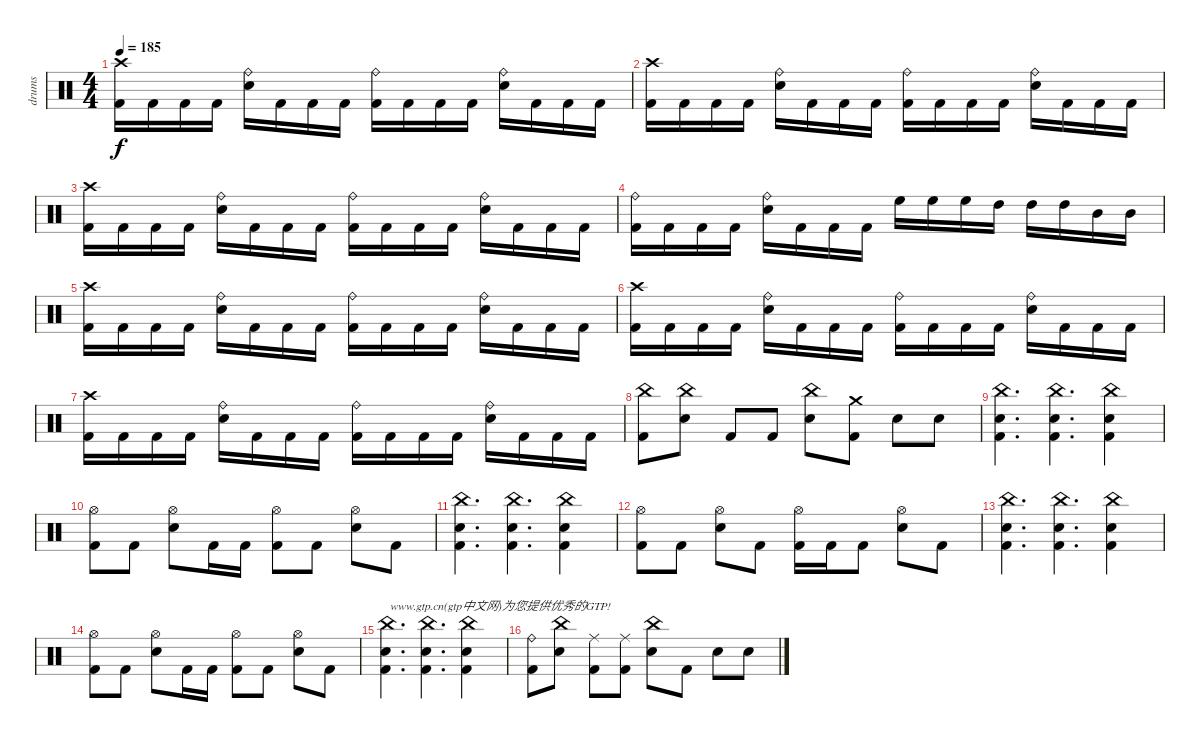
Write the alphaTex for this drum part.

\track ("drums" "drums") {instrument percussion}
\staff {score}
\articulation defaults
\ts (4 4)
\tempo 185
\clef neutral
\ks c
("Crash high (hit)" "Kick (hit) 2").16{dy f} "Kick (hit) 2".16 "Kick (hit) 2".16 "Kick (hit) 2".16 ("Ride (bell)" "Snare (hit) 2").16 "Kick (hit) 2".16 "Kick (hit) 2".16 "Kick (hit) 2".16 ("Ride (bell)" "Kick (hit) 2").16 "Kick (hit) 2".16 "Kick (hit) 2".16 "Kick (hit) 2".16 ("Ride (bell)" "Snare (hit) 2").16 "Kick (hit) 2".16 "Kick (hit) 2".16 "Kick (hit) 2".16 |
("Crash high (hit)" "Kick (hit) 2").16 "Kick (hit) 2".16 "Kick (hit) 2".16 "Kick (hit) 2".16 ("Ride (bell)" "Snare (hit) 2").16 "Kick (hit) 2".16 "Kick (hit) 2".16 "Kick (hit) 2".16 ("Ride (bell)" "Kick (hit) 2").16 "Kick (hit) 2".16 "Kick (hit) 2".16 "Kick (hit) 2".16 ("Ride (bell)" "Snare (hit) 2").16 "Kick (hit) 2".16 "Kick (hit) 2".16 "Kick (hit) 2".16 |
("Crash high (hit)" "Kick (hit) 2").16 "Kick (hit) 2".16 "Kick (hit) 2".16 "Kick (hit) 2".16 ("Ride (bell)" "Snare (hit) 2").16 "Kick (hit) 2".16 "Kick (hit) 2".16 "Kick (hit) 2".16 ("Ride (bell)" "Kick (hit) 2").16 "Kick (hit) 2".16 "Kick (hit) 2".16 "Kick (hit) 2".16 ("Ride (bell)" "Snare (hit) 2").16 "Kick (hit) 2".16 "Kick (hit) 2".16 "Kick (hit) 2".16 |
("Ride (bell)" "Kick (hit) 2").16 "Kick (hit) 2".16 "Kick (hit) 2".16 "Kick (hit) 2".16 ("Ride (bell)" "Snare (hit) 2").16 "Kick (hit) 2".16 "Kick (hit) 2".16 "Kick (hit) 2".16 "High Floor Tom (hit)".16 "High Floor Tom (hit)".16 "High Floor Tom (hit)".16 "High Tom (hit)".16 "High Tom (hit)".16 "High Tom (hit)".16 "Mid Tom (hit)".16 "Mid Tom (hit)".16 |
("Crash high (hit)" "Kick (hit) 2").16 "Kick (hit) 2".16 "Kick (hit) 2".16 "Kick (hit) 2".16 ("Ride (bell)" "Snare (hit) 2").16 "Kick (hit) 2".16 "Kick (hit) 2".16 "Kick (hit) 2".16 ("Ride (bell)" "Kick (hit) 2").16 "Kick (hit) 2".16 "Kick (hit) 2".16 "Kick (hit) 2".16 ("Ride (bell)" "Snare (hit) 2").16 "Kick (hit) 2".16 "Kick (hit) 2".16 "Kick (hit) 2".16 |
("Crash high (hit)" "Kick (hit) 2").16 "Kick (hit) 2".16 "Kick (hit) 2".16 "Kick (hit) 2".16 ("Ride (bell)" "Snare (hit) 2").16 "Kick (hit) 2".16 "Kick (hit) 2".16 "Kick (hit) 2".16 ("Ride (bell)" "Kick (hit) 2").16 "Kick (hit) 2".16 "Kick (hit) 2".16 "Kick (hit) 2".16 ("Ride (bell)" "Snare (hit) 2").16 "Kick (hit) 2".16 "Kick (hit) 2".16 "Kick (hit) 2".16 |
("Crash high (hit)" "Kick (hit) 2").16 "Kick (hit) 2".16 "Kick (hit) 2".16 "Kick (hit) 2".16 ("Ride (bell)" "Snare (hit) 2").16 "Kick (hit) 2".16 "Kick (hit) 2".16 "Kick (hit) 2".16 ("Ride (bell)" "Kick (hit) 2").16 "Kick (hit) 2".16 "Kick (hit) 2".16 "Kick (hit) 2".16 ("Ride (bell)" "Snare (hit) 2").16 "Kick (hit) 2".16 "Kick (hit) 2".16 "Kick (hit) 2".16 |
("China (hit)" "Kick (hit) 2").8 ("China (hit)" "Snare (hit) 2").8 "Kick (hit) 2".8 "Kick (hit) 2".8 ("China (hit)" "Snare (hit) 2").8 ("Crash medium (hit)" "Kick (hit) 2").8 "Snare (hit) 2".8 "Snare (hit) 2".8 |
("China (hit)" "Snare (hit) 2" "Kick (hit) 2").4{d} ("China (hit)" "Snare (hit) 2" "Kick (hit) 2").4{d} ("China (hit)" "Snare (hit) 2" "Kick (hit) 2").4 |
("Hi-Hat (open)" "Kick (hit) 2").8 "Kick (hit) 2".8 ("Hi-Hat (open)" "Snare (hit) 2").8 "Kick (hit) 2".16 "Kick (hit) 2".16 ("Hi-Hat (open)" "Kick (hit) 2").8 "Kick (hit) 2".8 ("Hi-Hat (open)" "Snare (hit) 2").8 "Kick (hit) 2".8 |
("China (hit)" "Snare (hit) 2" "Kick (hit) 2").4{d} ("China (hit)" "Snare (hit) 2" "Kick (hit) 2").4{d} ("China (hit)" "Snare (hit) 2" "Kick (hit) 2").4 |
("Hi-Hat (open)" "Kick (hit) 2").8 "Kick (hit) 2".8 ("Hi-Hat (open)" "Snare (hit) 2").8 "Kick (hit) 2".8 ("Hi-Hat (open)" "Kick (hit) 2").16 "Kick (hit) 2".16 "Kick (hit) 2".8 ("Hi-Hat (open)" "Snare (hit) 2").8 "Kick (hit) 2".8 |
("China (hit)" "Snare (hit) 2" "Kick (hit) 2").4{d} ("China (hit)" "Snare (hit) 2" "Kick (hit) 2").4{d} ("China (hit)" "Snare (hit) 2" "Kick (hit) 2").4 |
("Hi-Hat (open)" "Kick (hit) 2").8 "Kick (hit) 2".8 ("Hi-Hat (open)" "Snare (hit) 2").8 "Kick (hit) 2".16 "Kick (hit) 2".16 ("Hi-Hat (open)" "Kick (hit) 2").8 "Kick (hit) 2".8 ("Hi-Hat (open)" "Snare (hit) 2").8 "Kick (hit) 2".8 |
("China (hit)" "Snare (hit) 2" "Kick (hit) 2").4{d txt "www.gtp.cn(gtp中文网)为您提供优秀的GTP!"} ("China (hit)" "Snare (hit) 2" "Kick (hit) 2").4{d} ("China (hit)" "Snare (hit) 2" "Kick (hit) 2").4 |
("Ride (bell)" "Kick (hit) 2").8 ("China (hit)" "Snare (hit) 2").8 ("Ride (middle)" "Kick (hit) 2").8 ("Ride (middle)" "Kick (hit) 2").8 ("China (hit)" "Snare (hit) 2").8 "Kick (hit) 2".8 "Snare (hit) 2".8 "Snare (hit) 2".8
